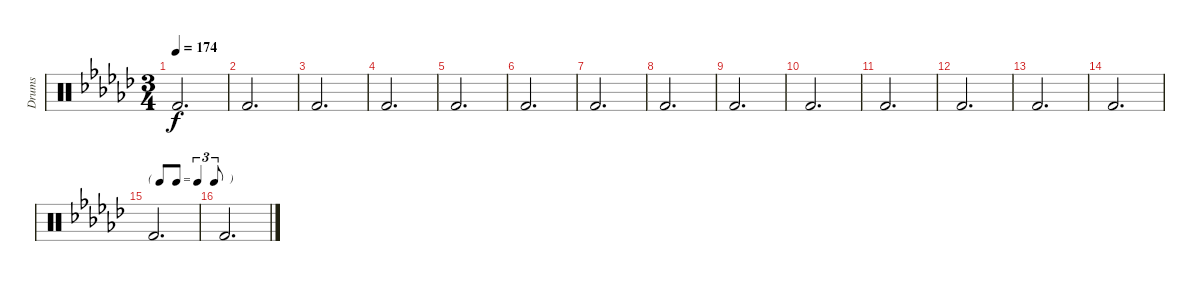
\track ("Drums" "Drums") {instrument percussion}
\staff {score}
\articulation defaults
\ts (3 4)
\tempo 174
\clef neutral
\ks ebminor "Kick (hit) 2".2{d dy f}
|
"Kick (hit) 2".2{d} |
"Kick (hit) 2".2{d} |
"Kick (hit) 2".2{d} |
"Kick (hit) 2".2{d} |
"Kick (hit) 2".2{d} |
"Kick (hit) 2".2{d} |
"Kick (hit) 2".2{d} |
"Kick (hit) 2".2{d} |
"Kick (hit) 2".2{d} |
"Kick (hit) 2".2{d} |
"Kick (hit) 2".2{d} |
"Kick (hit) 2".2{d} |
"Kick (hit) 2".2{d} |
\tf triplet8th "Kick (hit) 2".2{d}
|
"Kick (hit) 2".2{d}
